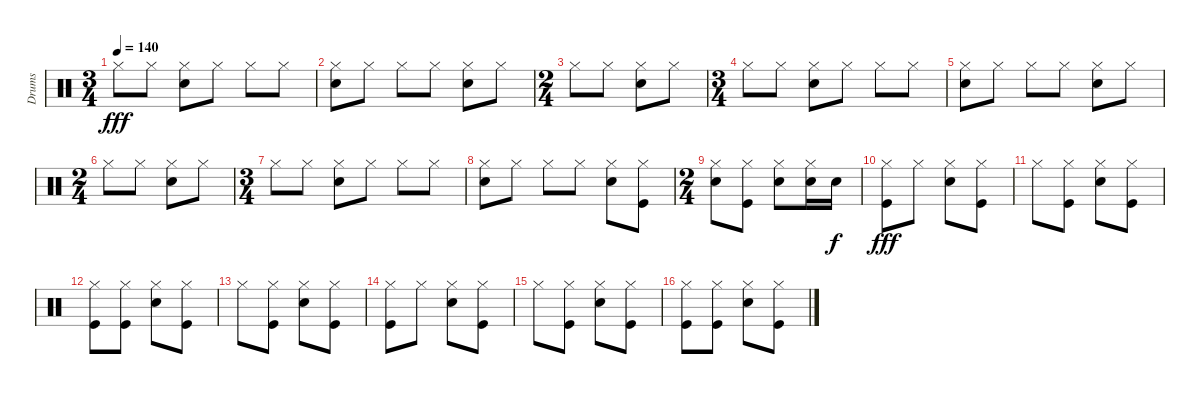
\track ("Drums" "Drums") {instrument percussion}
\staff {score}
\articulation defaults
\ts (3 4)
\tempo 140
\clef neutral
\ks c "Hi-Hat (closed)".8{dy fff} "Hi-Hat (closed)".8
("Hi-Hat (closed)" "Electric Snare (hit)").8 "Hi-Hat (closed)".8 "Hi-Hat (closed)".8 "Hi-Hat (closed)".8 |
("Hi-Hat (closed)" "Electric Snare (hit)").8 "Hi-Hat (closed)".8 "Hi-Hat (closed)".8 "Hi-Hat (closed)".8 ("Hi-Hat (closed)" "Electric Snare (hit)").8 "Hi-Hat (closed)".8 |
\ts (2 4)
"Hi-Hat (closed)".8 "Hi-Hat (closed)".8 ("Hi-Hat (closed)" "Electric Snare (hit)").8 "Hi-Hat (closed)".8 |
\ts (3 4)
"Hi-Hat (closed)".8 "Hi-Hat (closed)".8 ("Hi-Hat (closed)" "Electric Snare (hit)").8 "Hi-Hat (closed)".8 "Hi-Hat (closed)".8 "Hi-Hat (closed)".8 |
("Hi-Hat (closed)" "Electric Snare (hit)").8 "Hi-Hat (closed)".8 "Hi-Hat (closed)".8 "Hi-Hat (closed)".8 ("Hi-Hat (closed)" "Electric Snare (hit)").8 "Hi-Hat (closed)".8 |
\ts (2 4)
"Hi-Hat (closed)".8 "Hi-Hat (closed)".8 ("Hi-Hat (closed)" "Electric Snare (hit)").8 "Hi-Hat (closed)".8 |
\ts (3 4)
"Hi-Hat (closed)".8 "Hi-Hat (closed)".8 ("Hi-Hat (closed)" "Electric Snare (hit)").8 "Hi-Hat (closed)".8 "Hi-Hat (closed)".8 "Hi-Hat (closed)".8 |
("Hi-Hat (closed)" "Electric Snare (hit)").8 "Hi-Hat (closed)".8 "Hi-Hat (closed)".8 "Hi-Hat (closed)".8 ("Hi-Hat (closed)" "Electric Snare (hit)").8 ("Hi-Hat (closed)" "Kick (hit)").8 |
\ts (2 4)
("Hi-Hat (closed)" "Electric Snare (hit)").8 ("Hi-Hat (closed)" "Kick (hit)").8 ("Hi-Hat (closed)" "Electric Snare (hit)").8 ("Hi-Hat (closed)" "Electric Snare (hit)").16 "Electric Snare (hit)".16{dy f} |
("Hi-Hat (closed)" "Kick (hit)").8{dy fff} "Hi-Hat (closed)".8 ("Hi-Hat (closed)" "Electric Snare (hit)").8 ("Hi-Hat (closed)" "Kick (hit)").8 |
"Hi-Hat (closed)".8 ("Hi-Hat (closed)" "Kick (hit)").8 ("Hi-Hat (closed)" "Electric Snare (hit)").8 ("Hi-Hat (closed)" "Kick (hit)").8 |
("Hi-Hat (closed)" "Kick (hit)").8 ("Hi-Hat (closed)" "Kick (hit)").8 ("Hi-Hat (closed)" "Electric Snare (hit)").8 ("Hi-Hat (closed)" "Kick (hit)").8 |
"Hi-Hat (closed)".8 ("Hi-Hat (closed)" "Kick (hit)").8 ("Hi-Hat (closed)" "Electric Snare (hit)").8 ("Hi-Hat (closed)" "Kick (hit)").8 |
("Hi-Hat (closed)" "Kick (hit)").8 "Hi-Hat (closed)".8 ("Hi-Hat (closed)" "Electric Snare (hit)").8 ("Hi-Hat (closed)" "Kick (hit)").8 |
"Hi-Hat (closed)".8 ("Hi-Hat (closed)" "Kick (hit)").8 ("Hi-Hat (closed)" "Electric Snare (hit)").8 ("Hi-Hat (closed)" "Kick (hit)").8 |
("Hi-Hat (closed)" "Kick (hit)").8 ("Hi-Hat (closed)" "Kick (hit)").8 ("Hi-Hat (closed)" "Electric Snare (hit)").8 ("Hi-Hat (closed)" "Kick (hit)").8
